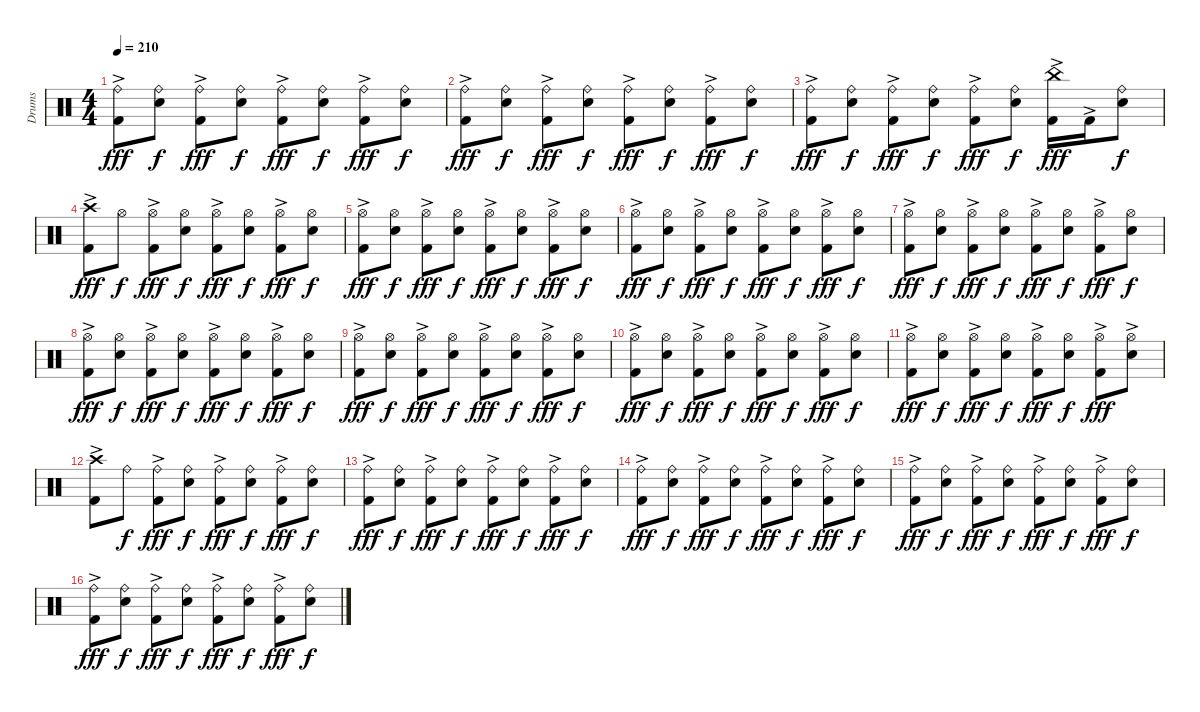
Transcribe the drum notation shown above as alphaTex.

\track ("Drums" "Drums") {instrument percussion}
\staff {score}
\articulation defaults
\ts (4 4)
\tempo 210
\clef neutral
\ks c
("Ride (bell)" "Kick (hit) 2"{ac}).8{dy fff} ("Ride (bell)" "Snare (hit) 2").8{dy f} ("Ride (bell)" "Kick (hit) 2"{ac}).8{dy fff} ("Ride (bell)" "Snare (hit) 2").8{dy f} ("Ride (bell)" "Kick (hit) 2"{ac}).8{dy fff} ("Ride (bell)" "Snare (hit) 2").8{dy f} ("Ride (bell)" "Kick (hit) 2"{ac}).8{dy fff} ("Ride (bell)" "Snare (hit) 2").8{dy f} |
("Ride (bell)" "Kick (hit) 2"{ac}).8{dy fff} ("Ride (bell)" "Snare (hit) 2").8{dy f} ("Ride (bell)" "Kick (hit) 2"{ac}).8{dy fff} ("Ride (bell)" "Snare (hit) 2").8{dy f} ("Ride (bell)" "Kick (hit) 2"{ac}).8{dy fff} ("Ride (bell)" "Snare (hit) 2").8{dy f} ("Ride (bell)" "Kick (hit) 2"{ac}).8{dy fff} ("Ride (bell)" "Snare (hit) 2").8{dy f} |
("Ride (bell)" "Kick (hit) 2"{ac}).8{dy fff} ("Ride (bell)" "Snare (hit) 2").8{dy f} ("Ride (bell)" "Kick (hit) 2"{ac}).8{dy fff} ("Ride (bell)" "Snare (hit) 2").8{dy f} ("Ride (bell)" "Kick (hit) 2"{ac}).8{dy fff} ("Ride (bell)" "Snare (hit) 2").8{dy f} ("China (hit)"{ac} "Kick (hit) 2"{ac}).16{dy fff} "Kick (hit) 2"{ac}.16 ("Ride (bell)" "Snare (hit) 2").8{dy f} |
("Crash high (hit)" "Kick (hit) 2"{ac}).8{dy fff} "Hi-Hat (open)".8{dy f} ("Hi-Hat (open)" "Kick (hit) 2"{ac}).8{dy fff} ("Hi-Hat (open)" "Snare (hit) 2").8{dy f} ("Hi-Hat (open)" "Kick (hit) 2"{ac}).8{dy fff} ("Hi-Hat (open)" "Snare (hit) 2").8{dy f} ("Hi-Hat (open)" "Kick (hit) 2"{ac}).8{dy fff} ("Hi-Hat (open)" "Snare (hit) 2").8{dy f} |
("Hi-Hat (open)" "Kick (hit) 2"{ac}).8{dy fff} ("Hi-Hat (open)" "Snare (hit) 2").8{dy f} ("Hi-Hat (open)" "Kick (hit) 2"{ac}).8{dy fff} ("Hi-Hat (open)" "Snare (hit) 2").8{dy f} ("Hi-Hat (open)" "Kick (hit) 2"{ac}).8{dy fff} ("Hi-Hat (open)" "Snare (hit) 2").8{dy f} ("Hi-Hat (open)" "Kick (hit) 2"{ac}).8{dy fff} ("Hi-Hat (open)" "Snare (hit) 2").8{dy f} |
("Hi-Hat (open)" "Kick (hit) 2"{ac}).8{dy fff} ("Hi-Hat (open)" "Snare (hit) 2").8{dy f} ("Hi-Hat (open)" "Kick (hit) 2"{ac}).8{dy fff} ("Hi-Hat (open)" "Snare (hit) 2").8{dy f} ("Hi-Hat (open)" "Kick (hit) 2"{ac}).8{dy fff} ("Hi-Hat (open)" "Snare (hit) 2").8{dy f} ("Hi-Hat (open)" "Kick (hit) 2"{ac}).8{dy fff} ("Hi-Hat (open)" "Snare (hit) 2").8{dy f} |
("Hi-Hat (open)" "Kick (hit) 2"{ac}).8{dy fff} ("Hi-Hat (open)" "Snare (hit) 2").8{dy f} ("Hi-Hat (open)" "Kick (hit) 2"{ac}).8{dy fff} ("Hi-Hat (open)" "Snare (hit) 2").8{dy f} ("Hi-Hat (open)" "Kick (hit) 2"{ac}).8{dy fff} ("Hi-Hat (open)" "Snare (hit) 2").8{dy f} ("Hi-Hat (open)" "Kick (hit) 2"{ac}).8{dy fff} ("Hi-Hat (open)" "Snare (hit) 2").8{dy f} |
("Hi-Hat (open)" "Kick (hit) 2"{ac}).8{dy fff} ("Hi-Hat (open)" "Snare (hit) 2").8{dy f} ("Hi-Hat (open)" "Kick (hit) 2"{ac}).8{dy fff} ("Hi-Hat (open)" "Snare (hit) 2").8{dy f} ("Hi-Hat (open)" "Kick (hit) 2"{ac}).8{dy fff} ("Hi-Hat (open)" "Snare (hit) 2").8{dy f} ("Hi-Hat (open)" "Kick (hit) 2"{ac}).8{dy fff} ("Hi-Hat (open)" "Snare (hit) 2").8{dy f} |
("Hi-Hat (open)" "Kick (hit) 2"{ac}).8{dy fff} ("Hi-Hat (open)" "Snare (hit) 2").8{dy f} ("Hi-Hat (open)" "Kick (hit) 2"{ac}).8{dy fff} ("Hi-Hat (open)" "Snare (hit) 2").8{dy f} ("Hi-Hat (open)" "Kick (hit) 2"{ac}).8{dy fff} ("Hi-Hat (open)" "Snare (hit) 2").8{dy f} ("Hi-Hat (open)" "Kick (hit) 2"{ac}).8{dy fff} ("Hi-Hat (open)" "Snare (hit) 2").8{dy f} |
("Hi-Hat (open)" "Kick (hit) 2"{ac}).8{dy fff} ("Hi-Hat (open)" "Snare (hit) 2").8{dy f} ("Hi-Hat (open)" "Kick (hit) 2"{ac}).8{dy fff} ("Hi-Hat (open)" "Snare (hit) 2").8{dy f} ("Hi-Hat (open)" "Kick (hit) 2"{ac}).8{dy fff} ("Hi-Hat (open)" "Snare (hit) 2").8{dy f} ("Hi-Hat (open)" "Kick (hit) 2"{ac}).8{dy fff} ("Hi-Hat (open)" "Snare (hit) 2").8{dy f} |
("Hi-Hat (open)" "Kick (hit) 2"{ac}).8{dy fff} ("Hi-Hat (open)" "Snare (hit) 2").8{dy f} ("Hi-Hat (open)" "Kick (hit) 2"{ac}).8{dy fff} ("Hi-Hat (open)" "Snare (hit) 2").8{dy f} ("Hi-Hat (open)" "Kick (hit) 2"{ac}).8{dy fff} ("Hi-Hat (open)" "Snare (hit) 2").8{dy f} ("Hi-Hat (open)" "Kick (hit) 2"{ac}).8{dy fff} ("Hi-Hat (open)"{ac} "Snare (hit) 2").8 |
("Crash high (hit)" "Kick (hit) 2"{ac}).8 "Ride (bell)".8{dy f} ("Ride (bell)" "Kick (hit) 2"{ac}).8{dy fff} ("Ride (bell)" "Snare (hit) 2").8{dy f} ("Ride (bell)" "Kick (hit) 2"{ac}).8{dy fff} ("Ride (bell)" "Snare (hit) 2").8{dy f} ("Ride (bell)" "Kick (hit) 2"{ac}).8{dy fff} ("Ride (bell)" "Snare (hit) 2").8{dy f} |
("Ride (bell)" "Kick (hit) 2"{ac}).8{dy fff} ("Ride (bell)" "Snare (hit) 2").8{dy f} ("Ride (bell)" "Kick (hit) 2"{ac}).8{dy fff} ("Ride (bell)" "Snare (hit) 2").8{dy f} ("Ride (bell)" "Kick (hit) 2"{ac}).8{dy fff} ("Ride (bell)" "Snare (hit) 2").8{dy f} ("Ride (bell)" "Kick (hit) 2"{ac}).8{dy fff} ("Ride (bell)" "Snare (hit) 2").8{dy f} |
("Ride (bell)" "Kick (hit) 2"{ac}).8{dy fff} ("Ride (bell)" "Snare (hit) 2").8{dy f} ("Ride (bell)" "Kick (hit) 2"{ac}).8{dy fff} ("Ride (bell)" "Snare (hit) 2").8{dy f} ("Ride (bell)" "Kick (hit) 2"{ac}).8{dy fff} ("Ride (bell)" "Snare (hit) 2").8{dy f} ("Ride (bell)" "Kick (hit) 2"{ac}).8{dy fff} ("Ride (bell)" "Snare (hit) 2").8{dy f} |
("Ride (bell)" "Kick (hit) 2"{ac}).8{dy fff} ("Ride (bell)" "Snare (hit) 2").8{dy f} ("Ride (bell)" "Kick (hit) 2"{ac}).8{dy fff} ("Ride (bell)" "Snare (hit) 2").8{dy f} ("Ride (bell)" "Kick (hit) 2"{ac}).8{dy fff} ("Ride (bell)" "Snare (hit) 2").8{dy f} ("Ride (bell)" "Kick (hit) 2"{ac}).8{dy fff} ("Ride (bell)" "Snare (hit) 2").8{dy f} |
("Ride (bell)" "Kick (hit) 2"{ac}).8{dy fff} ("Ride (bell)" "Snare (hit) 2").8{dy f} ("Ride (bell)" "Kick (hit) 2"{ac}).8{dy fff} ("Ride (bell)" "Snare (hit) 2").8{dy f} ("Ride (bell)" "Kick (hit) 2"{ac}).8{dy fff} ("Ride (bell)" "Snare (hit) 2").8{dy f} ("Ride (bell)" "Kick (hit) 2"{ac}).8{dy fff} ("Ride (bell)" "Snare (hit) 2").8{dy f}
